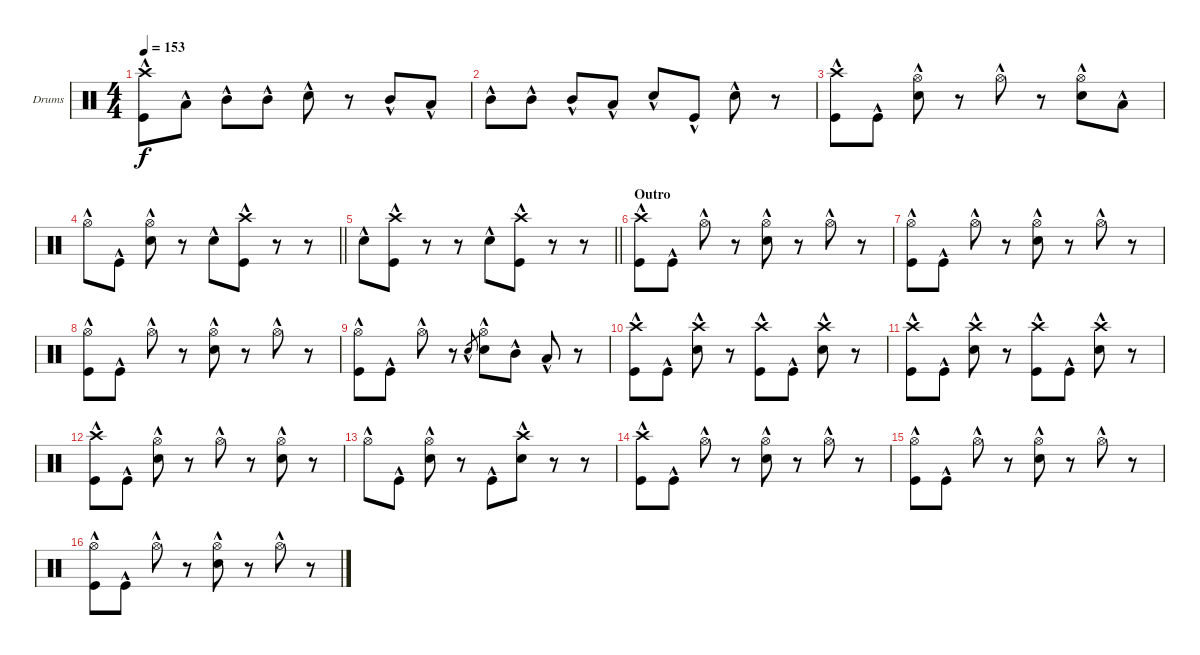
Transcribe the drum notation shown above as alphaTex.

\bracketExtendMode groupsimilarinstruments
\firstSystemTrackNameOrientation horizontal
\otherSystemsTrackNameOrientation horizontal
\track ("Drumkit" "Drums") {solo instrument percussion}
\staff {score}
\articulation defaults
\ts (4 4)
\tempo 153
\clef neutral
\ks c
("Crash high (hit)"{hac} "Kick (hit)"{hac}).8{dy f} "Low Tom (hit)"{hac}.8 "Mid Tom (hit)"{hac}.8 "Mid Tom (hit)"{hac}.8 "Snare (hit) 2"{hac}.8 r.8 "Mid Tom (hit)"{hac}.8 "Low Tom (hit)"{hac}.8 |
"Mid Tom (hit)"{hac}.8 "Mid Tom (hit)"{hac}.8 "Mid Tom (hit)"{hac}.8 "Low Tom (hit)"{hac}.8 "Snare (hit) 2"{hac}.8 "Kick (hit)"{hac}.8 "Snare (hit) 2"{hac}.8 r.8 |
("Crash high (hit)"{hac} "Kick (hit)"{hac}).8 "Kick (hit)"{hac}.8 ("Hi-Hat (open)"{hac} "Snare (hit) 2"{hac}).8 r.8 "Hi-Hat (open)"{hac}.8 r.8 ("Hi-Hat (open)"{hac} "Snare (hit) 2"{hac}).8 "Low Tom (hit)"{hac}.8 |
\barLineRight lightlight "Hi-Hat (open)"{hac}.8 "Kick (hit)"{hac}.8
("Hi-Hat (open)"{hac} "Snare (hit) 2"{hac}).8 r.8 "Snare (hit) 2"{hac}.8 ("Crash high (hit)"{hac} "Kick (hit)"{hac}).8 r.8 r.8 |
\barLineRight lightlight "Snare (hit) 2"{hac}.8
("Crash high (hit)"{hac} "Kick (hit)"{hac}).8 r.8 r.8 "Snare (hit) 2"{hac}.8 ("Crash high (hit)"{hac} "Kick (hit)"{hac}).8 r.8 r.8 |
\section ("" "Outro")
("Crash high (hit)"{hac} "Kick (hit)"{hac}).8 "Kick (hit)"{hac}.8 "Hi-Hat (open)"{hac}.8 r.8 ("Hi-Hat (open)"{hac} "Snare (hit) 2"{hac}).8 r.8 "Hi-Hat (open)"{hac}.8 r.8 |
("Hi-Hat (open)"{hac} "Kick (hit)"{hac}).8 "Kick (hit)"{hac}.8 "Hi-Hat (open)"{hac}.8 r.8 ("Hi-Hat (open)"{hac} "Snare (hit) 2"{hac}).8 r.8 "Hi-Hat (open)"{hac}.8 r.8 |
("Hi-Hat (open)"{hac} "Kick (hit)"{hac}).8 "Kick (hit)"{hac}.8 "Hi-Hat (open)"{hac}.8 r.8 ("Hi-Hat (open)"{hac} "Snare (hit) 2"{hac}).8 r.8 "Hi-Hat (open)"{hac}.8 r.8 |
("Hi-Hat (open)"{hac} "Kick (hit)"{hac}).8 "Kick (hit)"{hac}.8 "Hi-Hat (open)"{hac}.8 r.8 "Snare (hit) 2"{hac}.8{gr} ("Hi-Hat (open)"{hac} "Snare (hit) 2"{hac}).8 "Mid Tom (hit)"{hac}.8 "Low Tom (hit)"{hac}.8 r.8 |
("Crash high (hit)"{hac} "Kick (hit)"{hac}).8 "Kick (hit)"{hac}.8 ("Crash high (hit)"{hac} "Snare (hit) 2"{hac}).8 r.8 ("Crash high (hit)"{hac} "Kick (hit)"{hac}).8 "Kick (hit)"{hac}.8 ("Crash high (hit)"{hac} "Snare (hit) 2"{hac}).8 r.8 |
("Crash high (hit)"{hac} "Kick (hit)"{hac}).8 "Kick (hit)"{hac}.8 ("Crash high (hit)"{hac} "Snare (hit) 2"{hac}).8 r.8 ("Crash high (hit)"{hac} "Kick (hit)"{hac}).8 "Kick (hit)"{hac}.8 ("Crash high (hit)"{hac} "Snare (hit) 2"{hac}).8 r.8 |
("Crash high (hit)"{hac} "Kick (hit)"{hac}).8 "Kick (hit)"{hac}.8 ("Hi-Hat (open)"{hac} "Snare (hit) 2"{hac}).8 r.8 "Hi-Hat (open)"{hac}.8 r.8 ("Hi-Hat (open)"{hac} "Snare (hit) 2"{hac}).8 r.8 |
"Hi-Hat (open)"{hac}.8 "Kick (hit)"{hac}.8 ("Hi-Hat (open)"{hac} "Snare (hit) 2"{hac}).8 r.8 "Kick (hit)"{hac}.8 ("Crash high (hit)"{hac} "Snare (hit) 2"{hac}).8 r.8 r.8 |
("Crash high (hit)"{hac} "Kick (hit)"{hac}).8 "Kick (hit)"{hac}.8 "Hi-Hat (open)"{hac}.8 r.8 ("Hi-Hat (open)"{hac} "Snare (hit) 2"{hac}).8 r.8 "Hi-Hat (open)"{hac}.8 r.8 |
("Hi-Hat (open)"{hac} "Kick (hit)"{hac}).8 "Kick (hit)"{hac}.8 "Hi-Hat (open)"{hac}.8 r.8 ("Hi-Hat (open)"{hac} "Snare (hit) 2"{hac}).8 r.8 "Hi-Hat (open)"{hac}.8 r.8 |
("Hi-Hat (open)"{hac} "Kick (hit)"{hac}).8 "Kick (hit)"{hac}.8 "Hi-Hat (open)"{hac}.8 r.8 ("Hi-Hat (open)"{hac} "Snare (hit) 2"{hac}).8 r.8 "Hi-Hat (open)"{hac}.8 r.8
